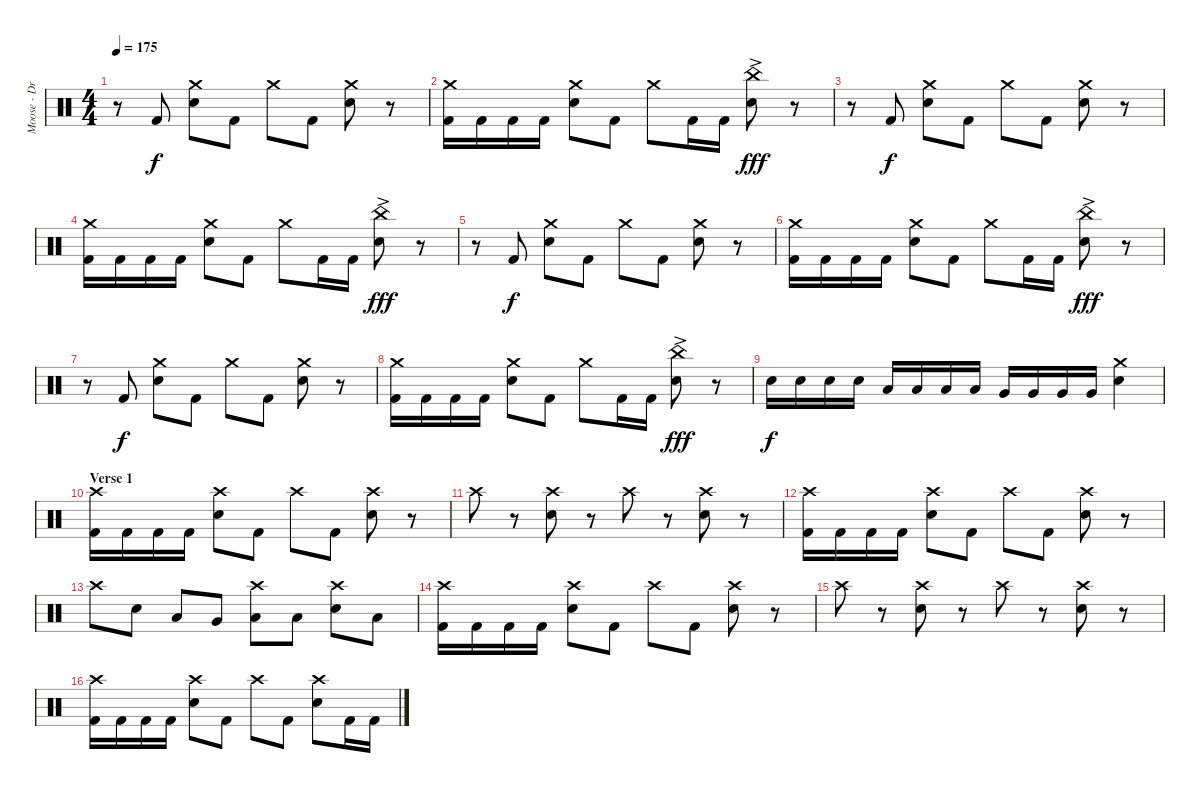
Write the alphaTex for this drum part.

\track ("Moose - Drums" "Moose - Dr") {instrument percussion}
\staff {score}
\articulation defaults
\ts (4 4)
\tempo 175
\clef neutral
\ks c
r.8{dy fff} "Kick (hit) 2".8{dy f} ("Crash medium (hit)" "Electric Snare (hit)").8 "Kick (hit) 2".8 "Crash medium (hit)".8 "Kick (hit) 2".8 ("Crash medium (hit)" "Electric Snare (hit)").8 r.8 |
("Crash medium (hit)" "Kick (hit) 2").16 "Kick (hit) 2".16 "Kick (hit) 2".16 "Kick (hit) 2".16 ("Crash medium (hit)" "Electric Snare (hit)").8 "Kick (hit) 2".8 "Crash medium (hit)".8 "Kick (hit) 2".16 "Kick (hit) 2".16 ("China (hit)"{ac} "Electric Snare (hit)").8{dy fff} r.8 |
r.8 "Kick (hit) 2".8{dy f} ("Crash medium (hit)" "Electric Snare (hit)").8 "Kick (hit) 2".8 "Crash medium (hit)".8 "Kick (hit) 2".8 ("Crash medium (hit)" "Electric Snare (hit)").8 r.8 |
("Crash medium (hit)" "Kick (hit) 2").16 "Kick (hit) 2".16 "Kick (hit) 2".16 "Kick (hit) 2".16 ("Crash medium (hit)" "Electric Snare (hit)").8 "Kick (hit) 2".8 "Crash medium (hit)".8 "Kick (hit) 2".16 "Kick (hit) 2".16 ("China (hit)"{ac} "Electric Snare (hit)").8{dy fff} r.8 |
r.8 "Kick (hit) 2".8{dy f} ("Crash medium (hit)" "Electric Snare (hit)").8 "Kick (hit) 2".8 "Crash medium (hit)".8 "Kick (hit) 2".8 ("Crash medium (hit)" "Electric Snare (hit)").8 r.8 |
("Crash medium (hit)" "Kick (hit) 2").16 "Kick (hit) 2".16 "Kick (hit) 2".16 "Kick (hit) 2".16 ("Crash medium (hit)" "Electric Snare (hit)").8 "Kick (hit) 2".8 "Crash medium (hit)".8 "Kick (hit) 2".16 "Kick (hit) 2".16 ("China (hit)"{ac} "Electric Snare (hit)").8{dy fff} r.8 |
r.8 "Kick (hit) 2".8{dy f} ("Crash medium (hit)" "Electric Snare (hit)").8 "Kick (hit) 2".8 "Crash medium (hit)".8 "Kick (hit) 2".8 ("Crash medium (hit)" "Electric Snare (hit)").8 r.8 |
("Crash medium (hit)" "Kick (hit) 2").16 "Kick (hit) 2".16 "Kick (hit) 2".16 "Kick (hit) 2".16 ("Crash medium (hit)" "Electric Snare (hit)").8 "Kick (hit) 2".8 "Crash medium (hit)".8 "Kick (hit) 2".16 "Kick (hit) 2".16 ("China (hit)"{ac} "Electric Snare (hit)").8{dy fff} r.8 |
"Electric Snare (hit)".16{dy f} "Electric Snare (hit)".16 "Electric Snare (hit)".16 "Electric Snare (hit)".16 "Low Tom (hit)".16 "Low Tom (hit)".16 "Low Tom (hit)".16 "Low Tom (hit)".16 "Very Low Tom (hit)".16 "Very Low Tom (hit)".16 "Very Low Tom (hit)".16 "Very Low Tom (hit)".16 ("Crash medium (hit)" "Electric Snare (hit)").4 |
\section ("" "Verse 1")
("Crash high (hit)" "Kick (hit) 2").16 "Kick (hit) 2".16 "Kick (hit) 2".16 "Kick (hit) 2".16 ("Crash high (hit)" "Electric Snare (hit)").8 "Kick (hit) 2".8 "Crash high (hit)".8 "Kick (hit) 2".8 ("Crash high (hit)" "Electric Snare (hit)").8 r.8 |
"Crash high (hit)".8 r.8 ("Crash high (hit)" "Electric Snare (hit)").8 r.8 "Crash high (hit)".8 r.8 ("Crash high (hit)" "Electric Snare (hit)").8 r.8 |
("Crash high (hit)" "Kick (hit) 2").16 "Kick (hit) 2".16 "Kick (hit) 2".16 "Kick (hit) 2".16 ("Crash high (hit)" "Electric Snare (hit)").8 "Kick (hit) 2".8 "Crash high (hit)".8 "Kick (hit) 2".8 ("Crash high (hit)" "Electric Snare (hit)").8 r.8 |
"Crash high (hit)".8 "Electric Snare (hit)".8 "Low Tom (hit)".8 "Very Low Tom (hit)".8 ("Crash high (hit)" "Low Floor Tom (hit)").8 "Low Floor Tom (hit)".8 ("Crash high (hit)" "Electric Snare (hit)").8 "Low Floor Tom (hit)".8 |
("Crash high (hit)" "Kick (hit) 2").16 "Kick (hit) 2".16 "Kick (hit) 2".16 "Kick (hit) 2".16 ("Crash high (hit)" "Electric Snare (hit)").8 "Kick (hit) 2".8 "Crash high (hit)".8 "Kick (hit) 2".8 ("Crash high (hit)" "Electric Snare (hit)").8 r.8 |
"Crash high (hit)".8 r.8 ("Crash high (hit)" "Electric Snare (hit)").8 r.8 "Crash high (hit)".8 r.8 ("Crash high (hit)" "Electric Snare (hit)").8 r.8 |
("Crash high (hit)" "Kick (hit) 2").16 "Kick (hit) 2".16 "Kick (hit) 2".16 "Kick (hit) 2".16 ("Crash high (hit)" "Electric Snare (hit)").8 "Kick (hit) 2".8 "Crash high (hit)".8 "Kick (hit) 2".8 ("Crash high (hit)" "Electric Snare (hit)").8 "Kick (hit) 2".16 "Kick (hit) 2".16
